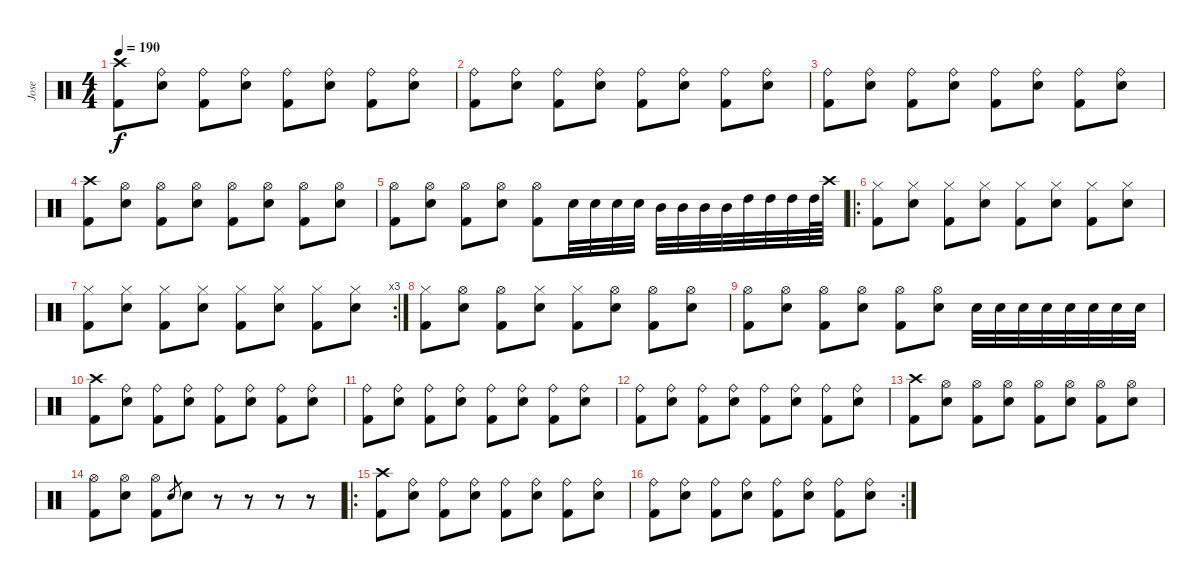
\track ("Jose" "Jose") {instrument percussion}
\staff {score}
\articulation defaults
\ts (4 4)
\tempo 190
\clef neutral
\ks c
("Crash high (hit)" "Kick (hit) 2").8{dy f} ("Ride (bell)" "Electric Snare (hit)").8 ("Ride (bell)" "Kick (hit) 2").8 ("Ride (bell)" "Electric Snare (hit)").8 ("Ride (bell)" "Kick (hit) 2").8 ("Ride (bell)" "Electric Snare (hit)").8 ("Ride (bell)" "Kick (hit) 2").8 ("Ride (bell)" "Electric Snare (hit)").8 |
("Ride (bell)" "Kick (hit) 2").8 ("Ride (bell)" "Electric Snare (hit)").8 ("Ride (bell)" "Kick (hit) 2").8 ("Ride (bell)" "Electric Snare (hit)").8 ("Ride (bell)" "Kick (hit) 2").8 ("Ride (bell)" "Electric Snare (hit)").8 ("Ride (bell)" "Kick (hit) 2").8 ("Ride (bell)" "Electric Snare (hit)").8 |
("Ride (bell)" "Kick (hit) 2").8 ("Ride (bell)" "Electric Snare (hit)").8 ("Ride (bell)" "Kick (hit) 2").8 ("Ride (bell)" "Electric Snare (hit)").8 ("Ride (bell)" "Kick (hit) 2").8 ("Ride (bell)" "Electric Snare (hit)").8 ("Ride (bell)" "Kick (hit) 2").8 ("Ride (bell)" "Electric Snare (hit)").8 |
("Crash high (hit)" "Kick (hit) 2").8 ("Hi-Hat (open)" "Electric Snare (hit)").8 ("Hi-Hat (open)" "Kick (hit) 2").8 ("Hi-Hat (open)" "Electric Snare (hit)").8 ("Hi-Hat (open)" "Kick (hit) 2").8 ("Hi-Hat (open)" "Electric Snare (hit)").8 ("Hi-Hat (open)" "Kick (hit) 2").8 ("Hi-Hat (open)" "Electric Snare (hit)").8 |
("Hi-Hat (open)" "Kick (hit) 2").8 ("Hi-Hat (open)" "Electric Snare (hit)").8 ("Hi-Hat (open)" "Kick (hit) 2").8 ("Hi-Hat (open)" "Electric Snare (hit)").8 ("Hi-Hat (open)" "Kick (hit) 2").8 "Electric Snare (hit)".32 "Electric Snare (hit)".32 "Electric Snare (hit)".32 "Electric Snare (hit)".32 "Mid Tom (hit)".32 "Mid Tom (hit)".32 "Mid Tom (hit)".32 "Mid Tom (hit)".32 "High Tom (hit)".32 "High Tom (hit)".32 "High Tom (hit)".32 "High Tom (hit)".64 "Crash high (hit)".64 |
\ro
("Hi-Hat (closed)" "Kick (hit) 2").8 ("Hi-Hat (closed)" "Electric Snare (hit)").8 ("Hi-Hat (closed)" "Kick (hit) 2").8 ("Hi-Hat (closed)" "Electric Snare (hit)").8 ("Hi-Hat (closed)" "Kick (hit) 2").8 ("Hi-Hat (closed)" "Electric Snare (hit)").8 ("Hi-Hat (closed)" "Kick (hit) 2").8 ("Hi-Hat (closed)" "Electric Snare (hit)").8 |
\rc 3
("Hi-Hat (closed)" "Kick (hit) 2").8 ("Hi-Hat (closed)" "Electric Snare (hit)").8 ("Hi-Hat (closed)" "Kick (hit) 2").8 ("Hi-Hat (closed)" "Electric Snare (hit)").8 ("Hi-Hat (closed)" "Kick (hit) 2").8 ("Hi-Hat (closed)" "Electric Snare (hit)").8 ("Hi-Hat (closed)" "Kick (hit) 2").8 ("Hi-Hat (closed)" "Electric Snare (hit)").8 |
("Hi-Hat (closed)" "Kick (hit) 2").8 ("Hi-Hat (open)" "Electric Snare (hit)").8 ("Hi-Hat (open)" "Kick (hit) 2").8 ("Hi-Hat (closed)" "Electric Snare (hit)").8 ("Hi-Hat (closed)" "Kick (hit) 2").8 ("Hi-Hat (open)" "Electric Snare (hit)").8 ("Hi-Hat (open)" "Kick (hit) 2").8 ("Hi-Hat (open)" "Electric Snare (hit)").8 |
("Hi-Hat (open)" "Kick (hit) 2").8 ("Hi-Hat (open)" "Electric Snare (hit)").8 ("Hi-Hat (open)" "Kick (hit) 2").8 ("Hi-Hat (open)" "Electric Snare (hit)").8 ("Hi-Hat (open)" "Kick (hit) 2").8 ("Hi-Hat (open)" "Electric Snare (hit)").8 "Electric Snare (hit)".32 "Electric Snare (hit)".32 "Electric Snare (hit)".32 "Electric Snare (hit)".32 "Electric Snare (hit)".32 "Electric Snare (hit)".32 "Electric Snare (hit)".32 "Electric Snare (hit)".32 |
("Crash high (hit)" "Kick (hit) 2").8 ("Ride (bell)" "Electric Snare (hit)").8 ("Ride (bell)" "Kick (hit) 2").8 ("Ride (bell)" "Electric Snare (hit)").8 ("Ride (bell)" "Kick (hit) 2").8 ("Ride (bell)" "Electric Snare (hit)").8 ("Ride (bell)" "Kick (hit) 2").8 ("Ride (bell)" "Electric Snare (hit)").8 |
("Ride (bell)" "Kick (hit) 2").8 ("Ride (bell)" "Electric Snare (hit)").8 ("Ride (bell)" "Kick (hit) 2").8 ("Ride (bell)" "Electric Snare (hit)").8 ("Ride (bell)" "Kick (hit) 2").8 ("Ride (bell)" "Electric Snare (hit)").8 ("Ride (bell)" "Kick (hit) 2").8 ("Ride (bell)" "Electric Snare (hit)").8 |
("Ride (bell)" "Kick (hit) 2").8 ("Ride (bell)" "Electric Snare (hit)").8 ("Ride (bell)" "Kick (hit) 2").8 ("Ride (bell)" "Electric Snare (hit)").8 ("Ride (bell)" "Kick (hit) 2").8 ("Ride (bell)" "Electric Snare (hit)").8 ("Ride (bell)" "Kick (hit) 2").8 ("Ride (bell)" "Electric Snare (hit)").8 |
("Crash high (hit)" "Kick (hit) 2").8 ("Hi-Hat (open)" "Electric Snare (hit)").8 ("Hi-Hat (open)" "Kick (hit) 2").8 ("Hi-Hat (open)" "Electric Snare (hit)").8 ("Hi-Hat (open)" "Kick (hit) 2").8 ("Hi-Hat (open)" "Electric Snare (hit)").8 ("Hi-Hat (open)" "Kick (hit) 2").8 ("Hi-Hat (open)" "Electric Snare (hit)").8 |
("Hi-Hat (open)" "Kick (hit) 2").8 ("Hi-Hat (open)" "Electric Snare (hit)").8 ("Hi-Hat (open)" "Kick (hit) 2").8 "Electric Snare (hit)".8{gr} "Electric Snare (hit)".8 r.8 r.8 r.8 r.8 |
\ro
("Crash high (hit)" "Kick (hit) 2").8 ("Ride (bell)" "Electric Snare (hit)").8 ("Ride (bell)" "Kick (hit) 2").8 ("Ride (bell)" "Electric Snare (hit)").8 ("Ride (bell)" "Kick (hit) 2").8 ("Ride (bell)" "Electric Snare (hit)").8 ("Ride (bell)" "Kick (hit) 2").8 ("Ride (bell)" "Electric Snare (hit)").8 |
\rc 2
("Ride (bell)" "Kick (hit) 2").8 ("Ride (bell)" "Electric Snare (hit)").8 ("Ride (bell)" "Kick (hit) 2").8 ("Ride (bell)" "Electric Snare (hit)").8 ("Ride (bell)" "Kick (hit) 2").8 ("Ride (bell)" "Electric Snare (hit)").8 ("Ride (bell)" "Kick (hit) 2").8 ("Ride (bell)" "Electric Snare (hit)").8
